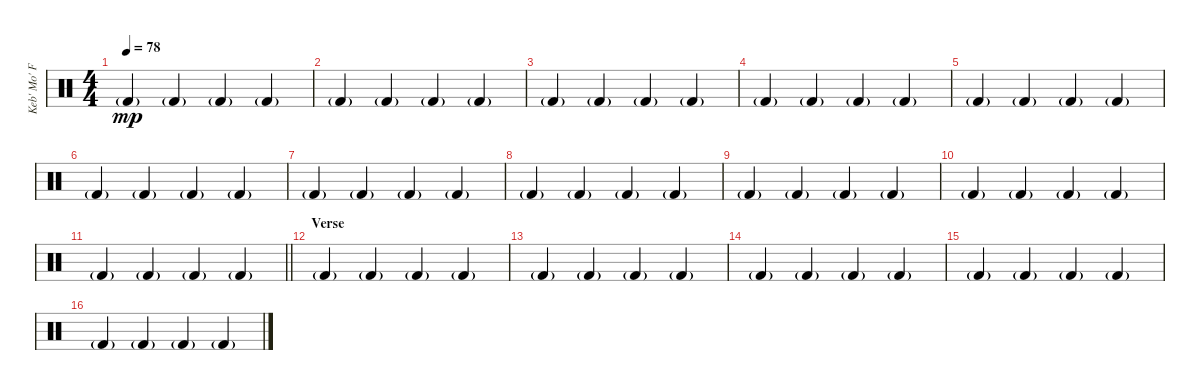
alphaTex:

\track ("Keb' Mo' Footstomp" "Keb' Mo' F") {instrument percussion}
\staff {score}
\articulation defaults
\ts (4 4)
\tempo 78
\clef neutral
\ks c "Kick (hit) 2"{g}.4{dy mp} "Kick (hit) 2"{g}.4 "Kick (hit) 2"{g}.4 "Kick (hit) 2"{g}.4
|
"Kick (hit) 2"{g}.4 "Kick (hit) 2"{g}.4 "Kick (hit) 2"{g}.4 "Kick (hit) 2"{g}.4 |
"Kick (hit) 2"{g}.4 "Kick (hit) 2"{g}.4 "Kick (hit) 2"{g}.4 "Kick (hit) 2"{g}.4 |
"Kick (hit) 2"{g}.4 "Kick (hit) 2"{g}.4 "Kick (hit) 2"{g}.4 "Kick (hit) 2"{g}.4 |
"Kick (hit) 2"{g}.4 "Kick (hit) 2"{g}.4 "Kick (hit) 2"{g}.4 "Kick (hit) 2"{g}.4 |
"Kick (hit) 2"{g}.4 "Kick (hit) 2"{g}.4 "Kick (hit) 2"{g}.4 "Kick (hit) 2"{g}.4 |
"Kick (hit) 2"{g}.4 "Kick (hit) 2"{g}.4 "Kick (hit) 2"{g}.4 "Kick (hit) 2"{g}.4 |
"Kick (hit) 2"{g}.4 "Kick (hit) 2"{g}.4 "Kick (hit) 2"{g}.4 "Kick (hit) 2"{g}.4 |
"Kick (hit) 2"{g}.4 "Kick (hit) 2"{g}.4 "Kick (hit) 2"{g}.4 "Kick (hit) 2"{g}.4 |
"Kick (hit) 2"{g}.4 "Kick (hit) 2"{g}.4 "Kick (hit) 2"{g}.4 "Kick (hit) 2"{g}.4 |
\barLineRight lightlight "Kick (hit) 2"{g}.4 "Kick (hit) 2"{g}.4 "Kick (hit) 2"{g}.4 "Kick (hit) 2"{g}.4
|
\section ("" "Verse")
"Kick (hit) 2"{g}.4 "Kick (hit) 2"{g}.4 "Kick (hit) 2"{g}.4 "Kick (hit) 2"{g}.4 |
"Kick (hit) 2"{g}.4 "Kick (hit) 2"{g}.4 "Kick (hit) 2"{g}.4 "Kick (hit) 2"{g}.4 |
"Kick (hit) 2"{g}.4 "Kick (hit) 2"{g}.4 "Kick (hit) 2"{g}.4 "Kick (hit) 2"{g}.4 |
"Kick (hit) 2"{g}.4 "Kick (hit) 2"{g}.4 "Kick (hit) 2"{g}.4 "Kick (hit) 2"{g}.4 |
"Kick (hit) 2"{g}.4 "Kick (hit) 2"{g}.4 "Kick (hit) 2"{g}.4 "Kick (hit) 2"{g}.4
